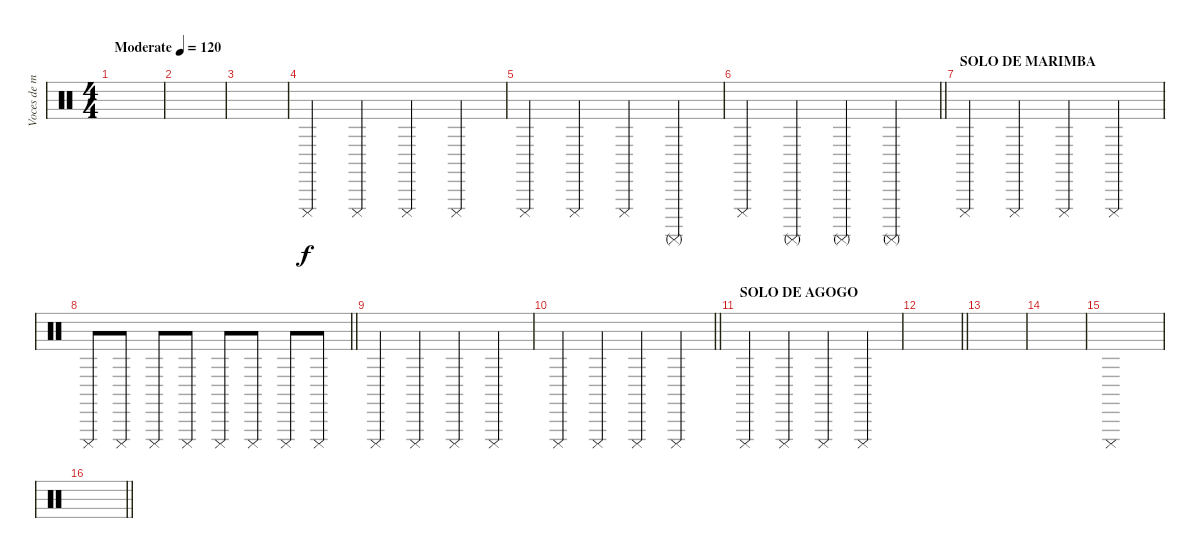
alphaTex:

\track ("Voces de marica!!" "Voces de m") {instrument percussion}
\staff {score}
\articulation defaults
\ts (4 4)
\tempo (120 "Moderate")
\clef neutral
\ks c
|
|
|
"Cuica (mute)".4 "Cuica (mute)".4 "Cuica (mute)".4 "Cuica (mute)".4 |
"Cuica (mute)".4 "Cuica (mute)".4 "Cuica (mute)".4 "Surdo (mute)".4 |
\barLineRight lightlight "Cuica (mute)".4 "Surdo (mute)".4 "Surdo (mute)".4 "Surdo (mute)".4
|
\section ("" "SOLO DE MARIMBA")
"Cuica (mute)".4 "Cuica (mute)".4 "Cuica (mute)".4 "Cuica (mute)".4 |
\barLineRight lightlight "Cuica (mute)".8 "Cuica (mute)".8 "Cuica (mute)".8 "Cuica (mute)".8 "Cuica (mute)".8 "Cuica (mute)".8 "Cuica (mute)".8 "Cuica (mute)".8
|
"Cuica (mute)".4 "Cuica (mute)".4 "Cuica (mute)".4 "Cuica (mute)".4 |
\barLineRight lightlight "Cuica (mute)".4 "Cuica (mute)".4 "Cuica (mute)".4 "Cuica (mute)".4
|
\section ("" "SOLO DE AGOGO")
"Cuica (mute)".4 "Cuica (mute)".4 "Cuica (mute)".4 "Cuica (mute)".4 |
\barLineRight lightlight
|
|
|
"Cuica (mute)".1 |
\barLineRight lightlight
